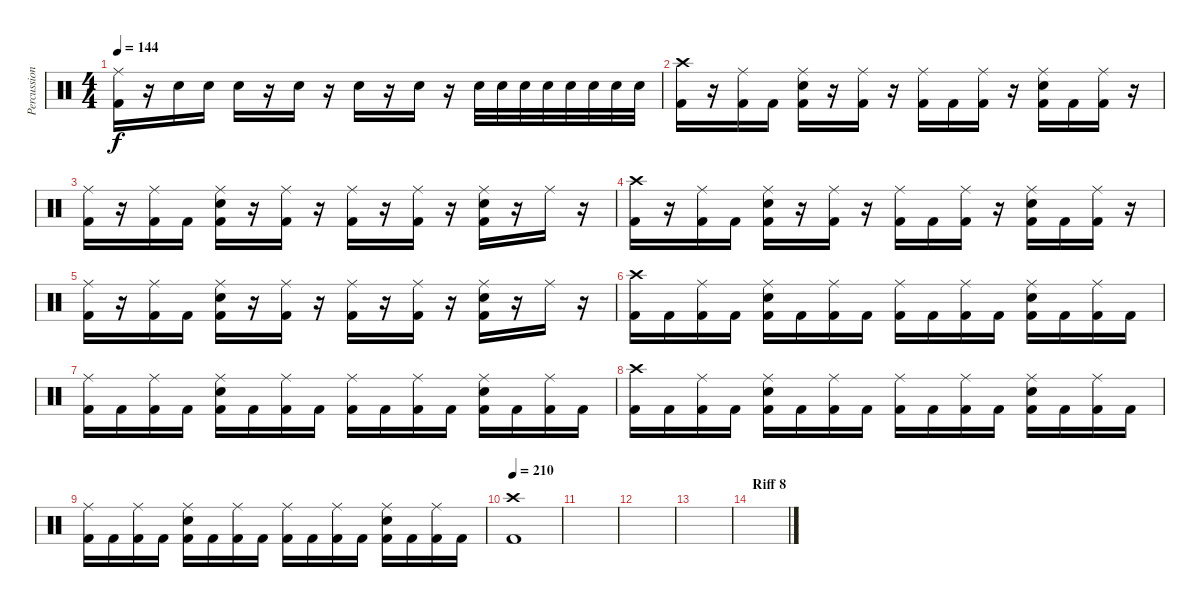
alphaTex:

\track ("Percussion" "Percussion") {instrument percussion}
\staff {score}
\articulation defaults
\ts (4 4)
\tempo 144
\clef neutral
\ks c
("Ride (middle)" "Kick (hit) 2").16{dy f} r.16 "Electric Snare (hit)".16 "Electric Snare (hit)".16 "Electric Snare (hit)".16 r.16 "Electric Snare (hit)".16 r.16 "Electric Snare (hit)".16 r.16 "Electric Snare (hit)".16 r.16 "Electric Snare (hit)".32 "Electric Snare (hit)".32 "Electric Snare (hit)".32 "Electric Snare (hit)".32 "Electric Snare (hit)".32 "Electric Snare (hit)".32 "Electric Snare (hit)".32 "Electric Snare (hit)".32 |
("Crash high (hit)" "Kick (hit) 2").16 r.16 ("Ride (middle)" "Kick (hit) 2").16 "Kick (hit) 2".16 ("Ride (middle)" "Electric Snare (hit)" "Kick (hit) 2").16 r.16 ("Ride (middle)" "Kick (hit) 2").16 r.16 ("Ride (middle)" "Kick (hit) 2").16 "Kick (hit) 2".16 ("Ride (middle)" "Kick (hit) 2").16 r.16 ("Ride (middle)" "Electric Snare (hit)" "Kick (hit) 2").16 "Kick (hit) 2".16 ("Ride (middle)" "Kick (hit) 2").16 r.16 |
("Ride (middle)" "Kick (hit) 2").16 r.16 ("Ride (middle)" "Kick (hit) 2").16 "Kick (hit) 2".16 ("Ride (middle)" "Electric Snare (hit)" "Kick (hit) 2").16 r.16 ("Ride (middle)" "Kick (hit) 2").16 r.16 ("Ride (middle)" "Kick (hit) 2").16 r.16 ("Ride (middle)" "Kick (hit) 2").16 r.16 ("Ride (middle)" "Electric Snare (hit)" "Kick (hit) 2").16 r.16 "Ride (middle)".16 r.16 |
("Crash high (hit)" "Kick (hit) 2").16 r.16 ("Ride (middle)" "Kick (hit) 2").16 "Kick (hit) 2".16 ("Ride (middle)" "Electric Snare (hit)" "Kick (hit) 2").16 r.16 ("Ride (middle)" "Kick (hit) 2").16 r.16 ("Ride (middle)" "Kick (hit) 2").16 "Kick (hit) 2".16 ("Ride (middle)" "Kick (hit) 2").16 r.16 ("Ride (middle)" "Electric Snare (hit)" "Kick (hit) 2").16 "Kick (hit) 2".16 ("Ride (middle)" "Kick (hit) 2").16 r.16 |
("Ride (middle)" "Kick (hit) 2").16 r.16 ("Ride (middle)" "Kick (hit) 2").16 "Kick (hit) 2".16 ("Ride (middle)" "Electric Snare (hit)" "Kick (hit) 2").16 r.16 ("Ride (middle)" "Kick (hit) 2").16 r.16 ("Ride (middle)" "Kick (hit) 2").16 r.16 ("Ride (middle)" "Kick (hit) 2").16 r.16 ("Ride (middle)" "Electric Snare (hit)" "Kick (hit) 2").16 r.16 "Ride (middle)".16 r.16 |
("Crash high (hit)" "Kick (hit) 2").16 "Kick (hit) 2".16 ("Ride (middle)" "Kick (hit) 2").16 "Kick (hit) 2".16 ("Ride (middle)" "Electric Snare (hit)" "Kick (hit) 2").16 "Kick (hit) 2".16 ("Ride (middle)" "Kick (hit) 2").16 "Kick (hit) 2".16 ("Ride (middle)" "Kick (hit) 2").16 "Kick (hit) 2".16 ("Ride (middle)" "Kick (hit) 2").16 "Kick (hit) 2".16 ("Ride (middle)" "Electric Snare (hit)" "Kick (hit) 2").16 "Kick (hit) 2".16 ("Ride (middle)" "Kick (hit) 2").16 "Kick (hit) 2".16 |
("Ride (middle)" "Kick (hit) 2").16 "Kick (hit) 2".16 ("Ride (middle)" "Kick (hit) 2").16 "Kick (hit) 2".16 ("Ride (middle)" "Electric Snare (hit)" "Kick (hit) 2").16 "Kick (hit) 2".16 ("Ride (middle)" "Kick (hit) 2").16 "Kick (hit) 2".16 ("Ride (middle)" "Kick (hit) 2").16 "Kick (hit) 2".16 ("Ride (middle)" "Kick (hit) 2").16 "Kick (hit) 2".16 ("Ride (middle)" "Electric Snare (hit)" "Kick (hit) 2").16 "Kick (hit) 2".16 ("Ride (middle)" "Kick (hit) 2").16 "Kick (hit) 2".16 |
("Crash high (hit)" "Kick (hit) 2").16 "Kick (hit) 2".16 ("Ride (middle)" "Kick (hit) 2").16 "Kick (hit) 2".16 ("Ride (middle)" "Electric Snare (hit)" "Kick (hit) 2").16 "Kick (hit) 2".16 ("Ride (middle)" "Kick (hit) 2").16 "Kick (hit) 2".16 ("Ride (middle)" "Kick (hit) 2").16 "Kick (hit) 2".16 ("Ride (middle)" "Kick (hit) 2").16 "Kick (hit) 2".16 ("Ride (middle)" "Electric Snare (hit)" "Kick (hit) 2").16 "Kick (hit) 2".16 ("Ride (middle)" "Kick (hit) 2").16 "Kick (hit) 2".16 |
("Ride (middle)" "Kick (hit) 2").16 "Kick (hit) 2".16 ("Ride (middle)" "Kick (hit) 2").16 "Kick (hit) 2".16 ("Ride (middle)" "Electric Snare (hit)" "Kick (hit) 2").16 "Kick (hit) 2".16 ("Ride (middle)" "Kick (hit) 2").16 "Kick (hit) 2".16 ("Ride (middle)" "Kick (hit) 2").16 "Kick (hit) 2".16 ("Ride (middle)" "Kick (hit) 2").16 "Kick (hit) 2".16 ("Ride (middle)" "Electric Snare (hit)" "Kick (hit) 2").16 "Kick (hit) 2".16 ("Ride (middle)" "Kick (hit) 2").16 "Kick (hit) 2".16 |
\tempo 210
("Crash high (hit)" "Kick (hit) 2").1 |
|
|
|
\section ("" "Riff 8")
